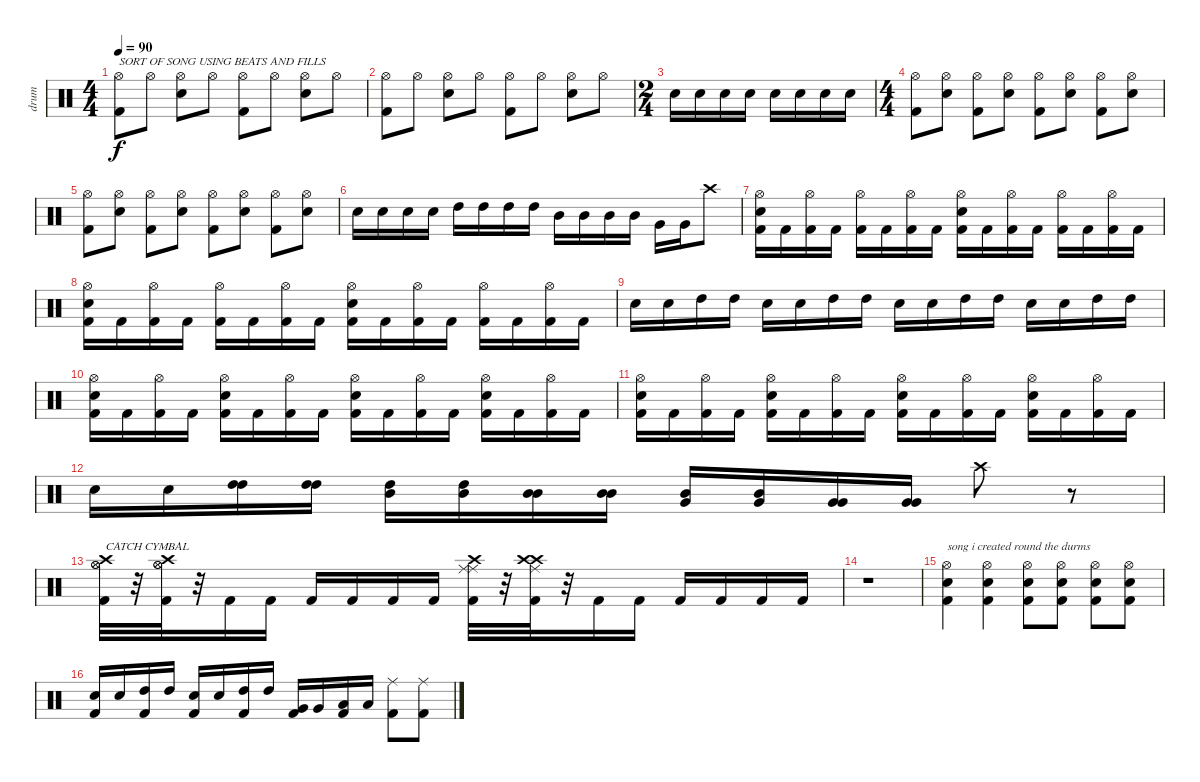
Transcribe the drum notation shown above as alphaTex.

\track ("drum" "drum") {instrument percussion}
\staff {score}
\articulation defaults
\ts (4 4)
\tempo 90
\clef neutral
\ks c
("Hi-Hat (open)" "Kick (hit) 2").8{txt "SORT OF SONG USING BEATS AND FILLS" dy f} "Hi-Hat (open)".8 ("Hi-Hat (open)" "Electric Snare (hit)").8 "Hi-Hat (open)".8 ("Hi-Hat (open)" "Kick (hit) 2").8 "Hi-Hat (open)".8 ("Hi-Hat (open)" "Electric Snare (hit)").8 "Hi-Hat (open)".8 |
("Hi-Hat (open)" "Kick (hit) 2").8 "Hi-Hat (open)".8 ("Hi-Hat (open)" "Electric Snare (hit)").8 "Hi-Hat (open)".8 ("Hi-Hat (open)" "Kick (hit) 2").8 "Hi-Hat (open)".8 ("Hi-Hat (open)" "Electric Snare (hit)").8 "Hi-Hat (open)".8 |
\ts (2 4)
"Electric Snare (hit)".16 "Electric Snare (hit)".16 "Electric Snare (hit)".16 "Electric Snare (hit)".16 "Electric Snare (hit)".16 "Electric Snare (hit)".16 "Electric Snare (hit)".16 "Electric Snare (hit)".16 |
\ts (4 4)
("Hi-Hat (open)" "Kick (hit) 2").8 ("Hi-Hat (open)" "Electric Snare (hit)").8 ("Hi-Hat (open)" "Kick (hit) 2").8 ("Hi-Hat (open)" "Electric Snare (hit)").8 ("Hi-Hat (open)" "Kick (hit) 2").8 ("Hi-Hat (open)" "Electric Snare (hit)").8 ("Hi-Hat (open)" "Kick (hit) 2").8 ("Hi-Hat (open)" "Electric Snare (hit)").8 |
("Hi-Hat (open)" "Kick (hit) 2").8 ("Hi-Hat (open)" "Electric Snare (hit)").8 ("Hi-Hat (open)" "Kick (hit) 2").8 ("Hi-Hat (open)" "Electric Snare (hit)").8 ("Hi-Hat (open)" "Kick (hit) 2").8 ("Hi-Hat (open)" "Electric Snare (hit)").8 ("Hi-Hat (open)" "Kick (hit) 2").8 ("Hi-Hat (open)" "Electric Snare (hit)").8 |
"Electric Snare (hit)".16 "Electric Snare (hit)".16 "Electric Snare (hit)".16 "Electric Snare (hit)".16 "High Tom (hit)".16 "High Tom (hit)".16 "High Tom (hit)".16 "High Tom (hit)".16 "Mid Tom (hit)".16 "Mid Tom (hit)".16 "Mid Tom (hit)".16 "Mid Tom (hit)".16 "Very Low Tom (hit)".16 "Very Low Tom (hit)".16 "Crash high (hit)".8 |
("Hi-Hat (open)" "Electric Snare (hit)" "Kick (hit) 2").16 "Kick (hit) 2".16 ("Hi-Hat (open)" "Kick (hit) 2").16 "Kick (hit) 2".16 ("Hi-Hat (open)" "Kick (hit) 2").16 "Kick (hit) 2".16 ("Hi-Hat (open)" "Kick (hit) 2").16 "Kick (hit) 2".16 ("Hi-Hat (open)" "Electric Snare (hit)" "Kick (hit) 2").16 "Kick (hit) 2".16 ("Hi-Hat (open)" "Kick (hit) 2").16 "Kick (hit) 2".16 ("Hi-Hat (open)" "Kick (hit) 2").16 "Kick (hit) 2".16 ("Hi-Hat (open)" "Kick (hit) 2").16 "Kick (hit) 2".16 |
("Hi-Hat (open)" "Electric Snare (hit)" "Kick (hit) 2").16 "Kick (hit) 2".16 ("Hi-Hat (open)" "Kick (hit) 2").16 "Kick (hit) 2".16 ("Hi-Hat (open)" "Kick (hit) 2").16 "Kick (hit) 2".16 ("Hi-Hat (open)" "Kick (hit) 2").16 "Kick (hit) 2".16 ("Hi-Hat (open)" "Electric Snare (hit)" "Kick (hit) 2").16 "Kick (hit) 2".16 ("Hi-Hat (open)" "Kick (hit) 2").16 "Kick (hit) 2".16 ("Hi-Hat (open)" "Kick (hit) 2").16 "Kick (hit) 2".16 ("Hi-Hat (open)" "Kick (hit) 2").16 "Kick (hit) 2".16 |
"Electric Snare (hit)".16 "Electric Snare (hit)".16 "High Tom (hit)".16 "High Tom (hit)".16 "Electric Snare (hit)".16 "Electric Snare (hit)".16 "High Tom (hit)".16 "High Tom (hit)".16 "Electric Snare (hit)".16 "Electric Snare (hit)".16 "High Tom (hit)".16 "High Tom (hit)".16 "Electric Snare (hit)".16 "Electric Snare (hit)".16 "High Tom (hit)".16 "High Tom (hit)".16 |
("Hi-Hat (open)" "Electric Snare (hit)" "Kick (hit) 2").16 "Kick (hit) 2".16 ("Hi-Hat (open)" "Kick (hit) 2").16 "Kick (hit) 2".16 ("Hi-Hat (open)" "Electric Snare (hit)" "Kick (hit) 2").16 "Kick (hit) 2".16 ("Hi-Hat (open)" "Kick (hit) 2").16 "Kick (hit) 2".16 ("Hi-Hat (open)" "Electric Snare (hit)" "Kick (hit) 2").16 "Kick (hit) 2".16 ("Hi-Hat (open)" "Kick (hit) 2").16 "Kick (hit) 2".16 ("Hi-Hat (open)" "Electric Snare (hit)" "Kick (hit) 2").16 "Kick (hit) 2".16 ("Hi-Hat (open)" "Kick (hit) 2").16 "Kick (hit) 2".16 |
("Hi-Hat (open)" "Electric Snare (hit)" "Kick (hit) 2").16 "Kick (hit) 2".16 ("Hi-Hat (open)" "Kick (hit) 2").16 "Kick (hit) 2".16 ("Hi-Hat (open)" "Electric Snare (hit)" "Kick (hit) 2").16 "Kick (hit) 2".16 ("Hi-Hat (open)" "Kick (hit) 2").16 "Kick (hit) 2".16 ("Hi-Hat (open)" "Electric Snare (hit)" "Kick (hit) 2").16 "Kick (hit) 2".16 ("Hi-Hat (open)" "Kick (hit) 2").16 "Kick (hit) 2".16 ("Hi-Hat (open)" "Electric Snare (hit)" "Kick (hit) 2").16 "Kick (hit) 2".16 ("Hi-Hat (open)" "Kick (hit) 2").16 "Kick (hit) 2".16 |
"Electric Snare (hit)".16 "Electric Snare (hit)".16 ("High Tom (hit)" "High Tom (hit)").16 ("High Tom (hit)" "High Tom (hit)").16 ("Mid Tom (hit)" "High Tom (hit)").16 ("Mid Tom (hit)" "High Tom (hit)").16 ("Mid Tom (hit)" "Mid Tom (hit)").16 ("Mid Tom (hit)" "Mid Tom (hit)").16 ("Very Low Tom (hit)" "Mid Tom (hit)").16 ("Very Low Tom (hit)" "Mid Tom (hit)").16 ("Very Low Tom (hit)" "Very Low Tom (hit)").16 ("Very Low Tom (hit)" "Very Low Tom (hit)").16 "Crash high (hit)".8 r.8 |
("Hi-Hat (open)" "Crash high (hit)" "Hi-Hat (open)" "Kick (hit) 2").32{txt "CATCH CYMBAL "} r.32{volume 0} ("Hi-Hat (open)" "Crash high (hit)" "Hi-Hat (open)" "Kick (hit) 2").32{volume 13} r.32{volume 0} "Kick (hit) 2".16{volume 13} "Kick (hit) 2".16 "Kick (hit) 2".16 "Kick (hit) 2".16 "Kick (hit) 2".16 "Kick (hit) 2".16 ("Ride (middle)" "Crash high (hit)" "Ride (middle)" "Kick (hit) 2").32 r.32{volume 0} ("Crash high (hit)" "Crash high (hit)" "Ride (middle)" "Kick (hit) 2").32{volume 13} r.32{volume 0} "Kick (hit) 2".16{volume 13} "Kick (hit) 2".16 "Kick (hit) 2".16 "Kick (hit) 2".16 "Kick (hit) 2".16 "Kick (hit) 2".16 |
r.1 |
("Kick (hit) 2" "Electric Snare (hit)" "Hi-Hat (open)").4{txt "song i created round the durms"} ("Kick (hit) 2" "Electric Snare (hit)" "Hi-Hat (open)").4 ("Kick (hit) 2" "Electric Snare (hit)" "Hi-Hat (open)").8 ("Kick (hit) 2" "Electric Snare (hit)" "Hi-Hat (open)").8 ("Kick (hit) 2" "Electric Snare (hit)" "Hi-Hat (open)").8 ("Kick (hit) 2" "Electric Snare (hit)" "Hi-Hat (open)").8 |
("Electric Snare (hit)" "Kick (hit) 2").16 "Electric Snare (hit)".16 ("High Tom (hit)" "Kick (hit) 2").16 "High Tom (hit)".16 ("Electric Snare (hit)" "Kick (hit) 2").16 "Electric Snare (hit)".16 ("High Tom (hit)" "Kick (hit) 2").16 "High Tom (hit)".16 ("Very Low Tom (hit)" "Kick (hit) 2").16 "Very Low Tom (hit)".16 ("Low Tom (hit)" "Kick (hit) 2").16 "Low Tom (hit)".16 ("Ride (middle)" "Kick (hit) 2").8 ("Ride (middle)" "Kick (hit) 2").8
